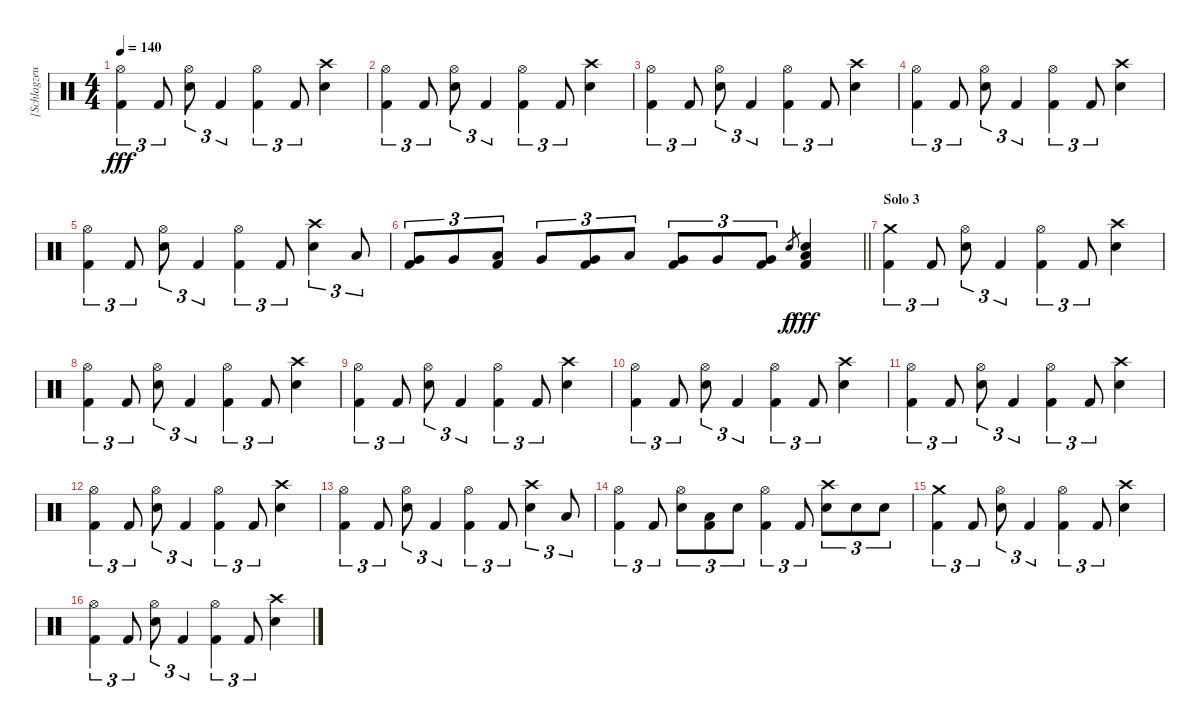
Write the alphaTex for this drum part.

\track ("[Schlagzeug]" "[Schlagzeu") {instrument percussion}
\staff {score}
\articulation defaults
\ts (4 4)
\tempo 140
\clef neutral
\ks c
("Hi-Hat (open)" "Kick (hit) 2").4{tu (3 2) dy fff} "Kick (hit) 2".8{tu (3 2)} ("Hi-Hat (open)" "Electric Snare (hit)").8{tu (3 2)} "Kick (hit) 2".4{tu (3 2)} ("Hi-Hat (open)" "Kick (hit) 2").4{tu (3 2)} "Kick (hit) 2".8{tu (3 2)} ("Crash high (hit)" "Electric Snare (hit)").4 |
("Hi-Hat (open)" "Kick (hit) 2").4{tu (3 2)} "Kick (hit) 2".8{tu (3 2)} ("Hi-Hat (open)" "Electric Snare (hit)").8{tu (3 2)} "Kick (hit) 2".4{tu (3 2)} ("Hi-Hat (open)" "Kick (hit) 2").4{tu (3 2)} "Kick (hit) 2".8{tu (3 2)} ("Crash high (hit)" "Electric Snare (hit)").4 |
("Hi-Hat (open)" "Kick (hit) 2").4{tu (3 2)} "Kick (hit) 2".8{tu (3 2)} ("Hi-Hat (open)" "Electric Snare (hit)").8{tu (3 2)} "Kick (hit) 2".4{tu (3 2)} ("Hi-Hat (open)" "Kick (hit) 2").4{tu (3 2)} "Kick (hit) 2".8{tu (3 2)} ("Crash high (hit)" "Electric Snare (hit)").4 |
("Hi-Hat (open)" "Kick (hit) 2").4{tu (3 2)} "Kick (hit) 2".8{tu (3 2)} ("Hi-Hat (open)" "Electric Snare (hit)").8{tu (3 2)} "Kick (hit) 2".4{tu (3 2)} ("Hi-Hat (open)" "Kick (hit) 2").4{tu (3 2)} "Kick (hit) 2".8{tu (3 2)} ("Crash high (hit)" "Electric Snare (hit)").4 |
("Hi-Hat (open)" "Kick (hit) 2").4{tu (3 2)} "Kick (hit) 2".8{tu (3 2)} ("Hi-Hat (open)" "Electric Snare (hit)").8{tu (3 2)} "Kick (hit) 2".4{tu (3 2)} ("Hi-Hat (open)" "Kick (hit) 2").4{tu (3 2)} "Kick (hit) 2".8{tu (3 2)} ("Crash high (hit)" "Electric Snare (hit)").4{tu (3 2)} "Low Floor Tom (hit)".8{tu (3 2)} |
\barLineRight lightlight
("Very Low Tom (hit)" "Kick (hit) 2").8{tu (3 2)} "Very Low Tom (hit)".8{tu (3 2)} ("Low Floor Tom (hit)" "Kick (hit) 2").8{tu (3 2)} "Very Low Tom (hit)".8{tu (3 2)} ("Very Low Tom (hit)" "Kick (hit) 2").8{tu (3 2)} "Low Floor Tom (hit)".8{tu (3 2)} ("Very Low Tom (hit)" "Kick (hit) 2").8{tu (3 2)} "Very Low Tom (hit)".8{tu (3 2)} ("Very Low Tom (hit)" "Kick (hit) 2").8{tu (3 2)} "Electric Snare (hit)".8{gr dy f} ("Electric Snare (hit)" "Low Floor Tom (hit)" "Kick (hit) 2").4{dy fff} |
\section ("" "Solo 3")
("Crash medium (hit)" "Kick (hit) 2").4{tu (3 2)} "Kick (hit) 2".8{tu (3 2)} ("Hi-Hat (open)" "Electric Snare (hit)").8{tu (3 2)} "Kick (hit) 2".4{tu (3 2)} ("Hi-Hat (open)" "Kick (hit) 2").4{tu (3 2)} "Kick (hit) 2".8{tu (3 2)} ("Crash high (hit)" "Electric Snare (hit)").4 |
("Hi-Hat (open)" "Kick (hit) 2").4{tu (3 2)} "Kick (hit) 2".8{tu (3 2)} ("Hi-Hat (open)" "Electric Snare (hit)").8{tu (3 2)} "Kick (hit) 2".4{tu (3 2)} ("Hi-Hat (open)" "Kick (hit) 2").4{tu (3 2)} "Kick (hit) 2".8{tu (3 2)} ("Crash high (hit)" "Electric Snare (hit)").4 |
("Hi-Hat (open)" "Kick (hit) 2").4{tu (3 2)} "Kick (hit) 2".8{tu (3 2)} ("Hi-Hat (open)" "Electric Snare (hit)").8{tu (3 2)} "Kick (hit) 2".4{tu (3 2)} ("Hi-Hat (open)" "Kick (hit) 2").4{tu (3 2)} "Kick (hit) 2".8{tu (3 2)} ("Crash high (hit)" "Electric Snare (hit)").4 |
("Hi-Hat (open)" "Kick (hit) 2").4{tu (3 2)} "Kick (hit) 2".8{tu (3 2)} ("Hi-Hat (open)" "Electric Snare (hit)").8{tu (3 2)} "Kick (hit) 2".4{tu (3 2)} ("Hi-Hat (open)" "Kick (hit) 2").4{tu (3 2)} "Kick (hit) 2".8{tu (3 2)} ("Crash high (hit)" "Electric Snare (hit)").4 |
("Hi-Hat (open)" "Kick (hit) 2").4{tu (3 2)} "Kick (hit) 2".8{tu (3 2)} ("Hi-Hat (open)" "Electric Snare (hit)").8{tu (3 2)} "Kick (hit) 2".4{tu (3 2)} ("Hi-Hat (open)" "Kick (hit) 2").4{tu (3 2)} "Kick (hit) 2".8{tu (3 2)} ("Crash high (hit)" "Electric Snare (hit)").4 |
("Hi-Hat (open)" "Kick (hit) 2").4{tu (3 2)} "Kick (hit) 2".8{tu (3 2)} ("Hi-Hat (open)" "Electric Snare (hit)").8{tu (3 2)} "Kick (hit) 2".4{tu (3 2)} ("Hi-Hat (open)" "Kick (hit) 2").4{tu (3 2)} "Kick (hit) 2".8{tu (3 2)} ("Crash high (hit)" "Electric Snare (hit)").4 |
("Hi-Hat (open)" "Kick (hit) 2").4{tu (3 2)} "Kick (hit) 2".8{tu (3 2)} ("Hi-Hat (open)" "Electric Snare (hit)").8{tu (3 2)} "Kick (hit) 2".4{tu (3 2)} ("Hi-Hat (open)" "Kick (hit) 2").4{tu (3 2)} "Kick (hit) 2".8{tu (3 2)} ("Crash high (hit)" "Electric Snare (hit)").4{tu (3 2)} "Low Floor Tom (hit)".8{tu (3 2)} |
("Hi-Hat (open)" "Kick (hit) 2").4{tu (3 2)} "Kick (hit) 2".8{tu (3 2)} ("Hi-Hat (open)" "Electric Snare (hit)").8{tu (3 2)} ("Low Floor Tom (hit)" "Kick (hit) 2").8{tu (3 2)} "Electric Snare (hit)".8{tu (3 2)} ("Hi-Hat (open)" "Kick (hit) 2").4{tu (3 2)} "Kick (hit) 2".8{tu (3 2)} ("Crash high (hit)" "Electric Snare (hit)").8{tu (3 2)} "Electric Snare (hit)".8{tu (3 2)} "Electric Snare (hit)".8{tu (3 2)} |
("Crash medium (hit)" "Kick (hit) 2").4{tu (3 2)} "Kick (hit) 2".8{tu (3 2)} ("Hi-Hat (open)" "Electric Snare (hit)").8{tu (3 2)} "Kick (hit) 2".4{tu (3 2)} ("Hi-Hat (open)" "Kick (hit) 2").4{tu (3 2)} "Kick (hit) 2".8{tu (3 2)} ("Crash high (hit)" "Electric Snare (hit)").4 |
("Hi-Hat (open)" "Kick (hit) 2").4{tu (3 2)} "Kick (hit) 2".8{tu (3 2)} ("Hi-Hat (open)" "Electric Snare (hit)").8{tu (3 2)} "Kick (hit) 2".4{tu (3 2)} ("Hi-Hat (open)" "Kick (hit) 2").4{tu (3 2)} "Kick (hit) 2".8{tu (3 2)} ("Crash high (hit)" "Electric Snare (hit)").4
